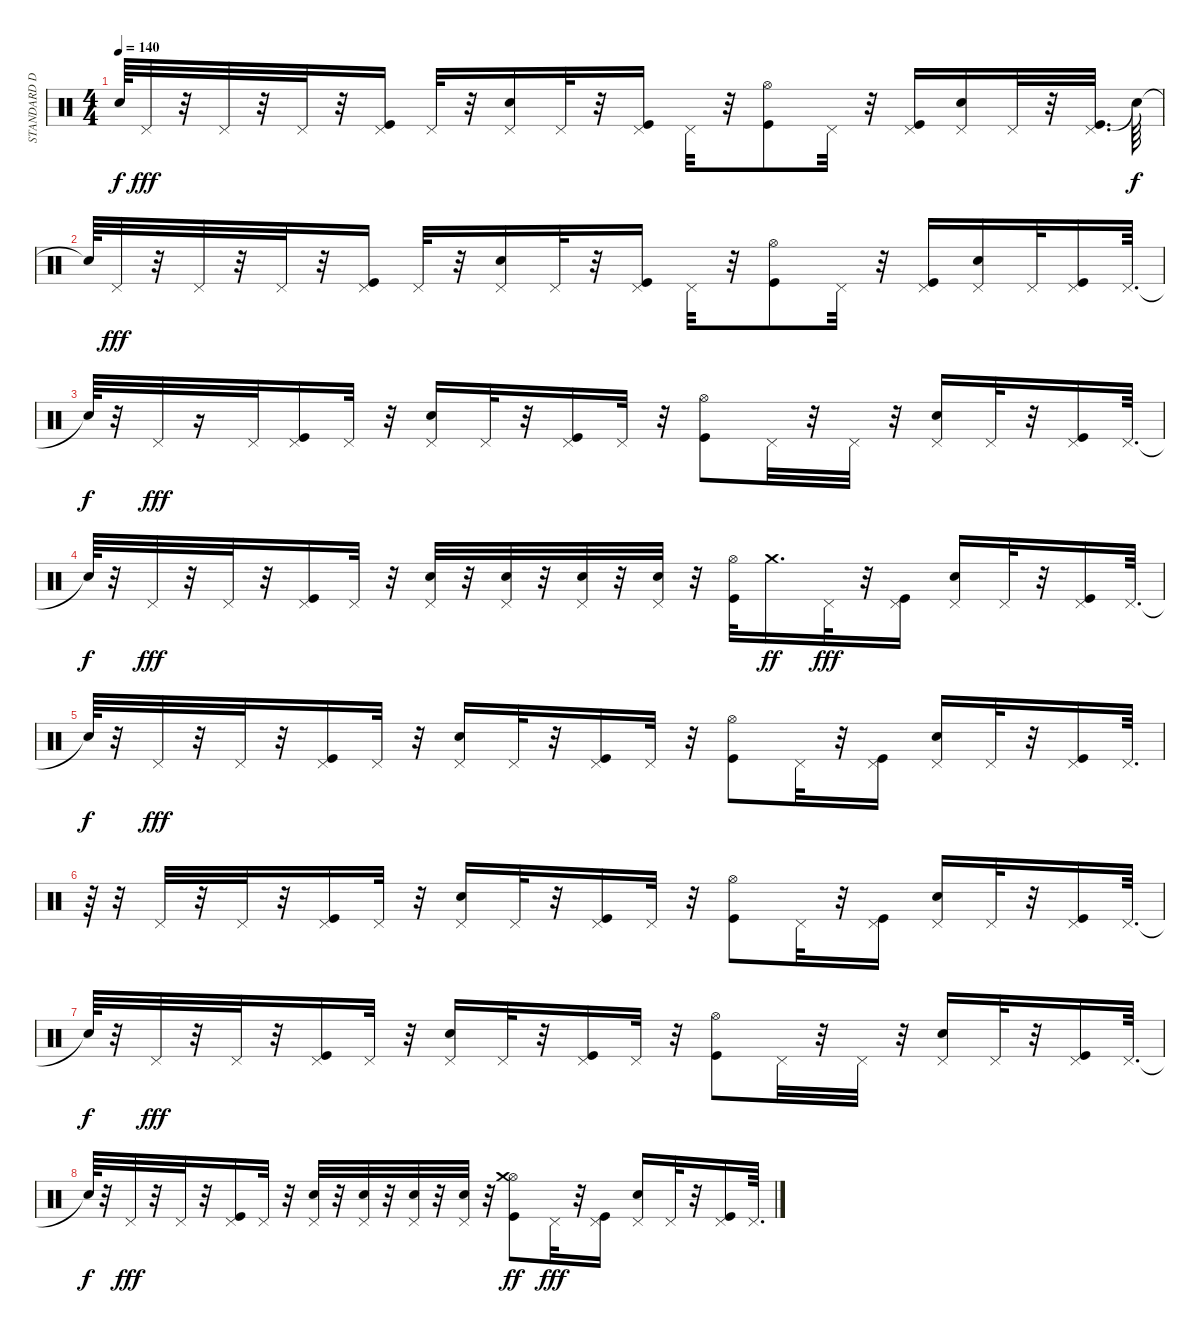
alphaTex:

\track ("STANDARD DRUMS" "STANDARD D") {instrument percussion}
\staff {score}
\articulation defaults
\ts (4 4)
\tempo 140
\clef neutral
\ks c "Snare (hit)"{t}.64{dy f} "Pedal Hi-Hat (hit)".32{dy fff}
r.32 "Pedal Hi-Hat (hit)".32 r.32 "Pedal Hi-Hat (hit)".32 r.32 ("Kick (hit)" "Pedal Hi-Hat (hit)").16 "Pedal Hi-Hat (hit)".32 r.32 ("Snare (hit) 2" "Pedal Hi-Hat (hit)").16 "Pedal Hi-Hat (hit)".32 r.32 ("Kick (hit)" "Pedal Hi-Hat (hit)").16 "Pedal Hi-Hat (hit)".32 r.32 ("Kick (hit)" "Hi-Hat (open)").8 "Pedal Hi-Hat (hit)".32 r.32 ("Kick (hit)" "Pedal Hi-Hat (hit)").16 ("Snare (hit) 2" "Pedal Hi-Hat (hit)").16 "Pedal Hi-Hat (hit)".32 r.32 ("Kick (hit)" "Pedal Hi-Hat (hit)").32{d} "Snare (hit)"{t}.64{dy f} |
"Snare (hit)"{t}.64 "Pedal Hi-Hat (hit)".32{dy fff} r.32 "Pedal Hi-Hat (hit)".32 r.32 "Pedal Hi-Hat (hit)".32 r.32 ("Kick (hit)" "Pedal Hi-Hat (hit)").16 "Pedal Hi-Hat (hit)".32 r.32 ("Snare (hit) 2" "Pedal Hi-Hat (hit)").16 "Pedal Hi-Hat (hit)".32 r.32 ("Kick (hit)" "Pedal Hi-Hat (hit)").16 "Pedal Hi-Hat (hit)".32 r.32 ("Kick (hit)" "Hi-Hat (open)").8 "Pedal Hi-Hat (hit)".32 r.32 ("Kick (hit)" "Pedal Hi-Hat (hit)").16 ("Snare (hit) 2" "Pedal Hi-Hat (hit)").16 "Pedal Hi-Hat (hit)".32 ("Kick (hit)" "Pedal Hi-Hat (hit)").16 "Pedal Hi-Hat (hit)".64{d} |
"Snare (hit)"{t}.64{dy f} r.32 "Pedal Hi-Hat (hit)".32{dy fff} r.16 "Pedal Hi-Hat (hit)".32 ("Kick (hit)" "Pedal Hi-Hat (hit)").16 "Pedal Hi-Hat (hit)".32 r.32 ("Snare (hit) 2" "Pedal Hi-Hat (hit)").16 "Pedal Hi-Hat (hit)".32 r.32 ("Kick (hit)" "Pedal Hi-Hat (hit)").16 "Pedal Hi-Hat (hit)".32 r.32 ("Kick (hit)" "Hi-Hat (open)").8 "Pedal Hi-Hat (hit)".32 r.32 "Pedal Hi-Hat (hit)".32 r.32 ("Snare (hit) 2" "Pedal Hi-Hat (hit)").16 "Pedal Hi-Hat (hit)".32 r.32 ("Kick (hit)" "Pedal Hi-Hat (hit)").16 "Pedal Hi-Hat (hit)".64{d} |
"Snare (hit)"{t}.64{dy f} r.32 "Pedal Hi-Hat (hit)".32{dy fff} r.32 "Pedal Hi-Hat (hit)".32 r.32 ("Kick (hit)" "Pedal Hi-Hat (hit)").16 "Pedal Hi-Hat (hit)".32 r.32 ("Snare (hit) 2" "Pedal Hi-Hat (hit)").32 r.32 ("Snare (hit) 2" "Pedal Hi-Hat (hit)").32 r.32 ("Snare (hit) 2" "Pedal Hi-Hat (hit)").32 r.32 ("Snare (hit) 2" "Pedal Hi-Hat (hit)").32 r.32 ("Kick (hit)" "Hi-Hat (open)").32 "Crash medium (hit)".16{d dy ff} "Pedal Hi-Hat (hit)".32{dy fff} r.32 ("Kick (hit)" "Pedal Hi-Hat (hit)").16 ("Snare (hit) 2" "Pedal Hi-Hat (hit)").16 "Pedal Hi-Hat (hit)".32 r.32 ("Kick (hit)" "Pedal Hi-Hat (hit)").16 "Pedal Hi-Hat (hit)".64{d} |
"Snare (hit)"{t}.64{dy f} r.32 "Pedal Hi-Hat (hit)".32{dy fff} r.32 "Pedal Hi-Hat (hit)".32 r.32 ("Kick (hit)" "Pedal Hi-Hat (hit)").16 "Pedal Hi-Hat (hit)".32 r.32 ("Snare (hit) 2" "Pedal Hi-Hat (hit)").16 "Pedal Hi-Hat (hit)".32 r.32 ("Kick (hit)" "Pedal Hi-Hat (hit)").16 "Pedal Hi-Hat (hit)".32 r.32 ("Kick (hit)" "Hi-Hat (open)").8 "Pedal Hi-Hat (hit)".32 r.32 ("Kick (hit)" "Pedal Hi-Hat (hit)").16 ("Snare (hit) 2" "Pedal Hi-Hat (hit)").16 "Pedal Hi-Hat (hit)".32 r.32 ("Kick (hit)" "Pedal Hi-Hat (hit)").16 "Pedal Hi-Hat (hit)".64{d} |
r.64 r.32 "Pedal Hi-Hat (hit)".32 r.32 "Pedal Hi-Hat (hit)".32 r.32 ("Kick (hit)" "Pedal Hi-Hat (hit)").16 "Pedal Hi-Hat (hit)".32 r.32 ("Snare (hit) 2" "Pedal Hi-Hat (hit)").16 "Pedal Hi-Hat (hit)".32 r.32 ("Kick (hit)" "Pedal Hi-Hat (hit)").16 "Pedal Hi-Hat (hit)".32 r.32 ("Kick (hit)" "Hi-Hat (open)").8 "Pedal Hi-Hat (hit)".32 r.32 ("Kick (hit)" "Pedal Hi-Hat (hit)").16 ("Snare (hit) 2" "Pedal Hi-Hat (hit)").16 "Pedal Hi-Hat (hit)".32 r.32 ("Kick (hit)" "Pedal Hi-Hat (hit)").16 "Pedal Hi-Hat (hit)".64{d} |
"Snare (hit)"{t}.64{dy f} r.32 "Pedal Hi-Hat (hit)".32{dy fff} r.32 "Pedal Hi-Hat (hit)".32 r.32 ("Kick (hit)" "Pedal Hi-Hat (hit)").16 "Pedal Hi-Hat (hit)".32 r.32 ("Snare (hit) 2" "Pedal Hi-Hat (hit)").16 "Pedal Hi-Hat (hit)".32 r.32 ("Kick (hit)" "Pedal Hi-Hat (hit)").16 "Pedal Hi-Hat (hit)".32 r.32 ("Kick (hit)" "Hi-Hat (open)").8 "Pedal Hi-Hat (hit)".32 r.32 "Pedal Hi-Hat (hit)".32 r.32 ("Snare (hit) 2" "Pedal Hi-Hat (hit)").16 "Pedal Hi-Hat (hit)".32 r.32 ("Kick (hit)" "Pedal Hi-Hat (hit)").16 "Pedal Hi-Hat (hit)".64{d} |
"Snare (hit)"{t}.64{dy f} r.32 "Pedal Hi-Hat (hit)".32{dy fff} r.32 "Pedal Hi-Hat (hit)".32 r.32 ("Kick (hit)" "Pedal Hi-Hat (hit)").16 "Pedal Hi-Hat (hit)".32 r.32 ("Snare (hit) 2" "Pedal Hi-Hat (hit)").32 r.32 ("Snare (hit) 2" "Pedal Hi-Hat (hit)").32 r.32 ("Snare (hit) 2" "Pedal Hi-Hat (hit)").32 r.32 ("Snare (hit) 2" "Pedal Hi-Hat (hit)").32 r.32 ("Kick (hit)" "Hi-Hat (open)" "Crash medium (hit)").8{dy ff} "Pedal Hi-Hat (hit)".32{dy fff} r.32 ("Kick (hit)" "Pedal Hi-Hat (hit)").16 ("Snare (hit) 2" "Pedal Hi-Hat (hit)").16 "Pedal Hi-Hat (hit)".32 r.32 ("Kick (hit)" "Pedal Hi-Hat (hit)").16 "Pedal Hi-Hat (hit)".64{d}
